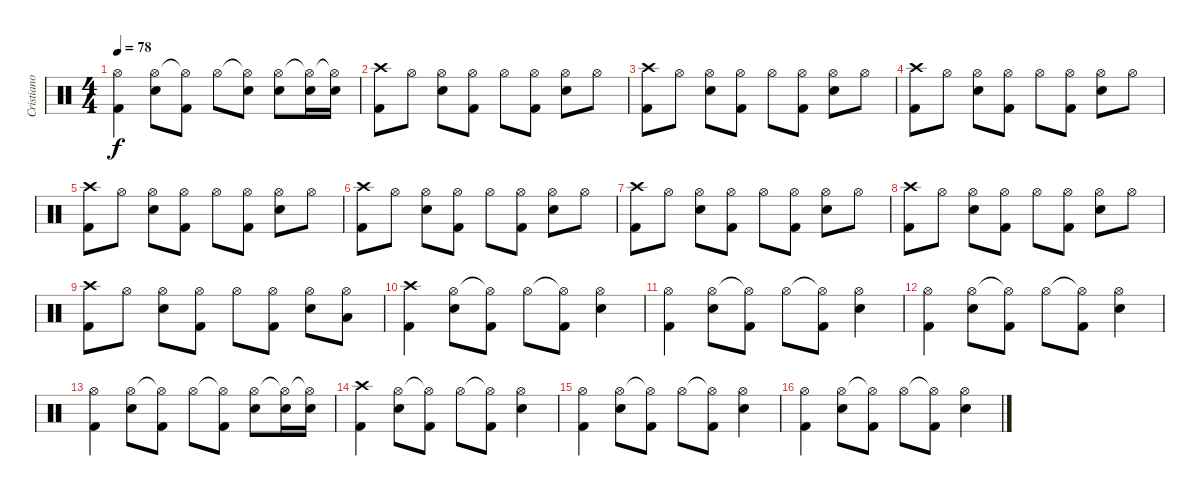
\track ("Cristiano Mozzati" "Cristiano ") {instrument percussion}
\staff {score}
\articulation defaults
\ts (4 4)
\tempo 78
\clef neutral
\ks c
("Hi-Hat (open)" "Kick (hit) 2").4{dy f} ("Hi-Hat (open)" "Electric Snare (hit)").8 ("Hi-Hat (open)"{t} "Kick (hit) 2").8 "Hi-Hat (open)".8 ("Hi-Hat (open)"{t} "Electric Snare (hit)").8 ("Hi-Hat (open)" "Electric Snare (hit)").8 ("Hi-Hat (open)"{t} "Electric Snare (hit)").16 ("Hi-Hat (open)"{t} "Electric Snare (hit)").16 |
("Crash high (hit)" "Kick (hit) 2").8 "Hi-Hat (open)".8 ("Hi-Hat (open)" "Electric Snare (hit)").8 ("Hi-Hat (open)" "Kick (hit) 2").8 "Hi-Hat (open)".8 ("Hi-Hat (open)" "Kick (hit) 2").8 ("Hi-Hat (open)" "Electric Snare (hit)").8 "Hi-Hat (open)".8 |
("Crash high (hit)" "Kick (hit) 2").8 "Hi-Hat (open)".8 ("Hi-Hat (open)" "Electric Snare (hit)").8 ("Hi-Hat (open)" "Kick (hit) 2").8 "Hi-Hat (open)".8 ("Hi-Hat (open)" "Kick (hit) 2").8 ("Hi-Hat (open)" "Electric Snare (hit)").8 "Hi-Hat (open)".8 |
("Crash high (hit)" "Kick (hit) 2").8 "Hi-Hat (open)".8 ("Hi-Hat (open)" "Electric Snare (hit)").8 ("Hi-Hat (open)" "Kick (hit) 2").8 "Hi-Hat (open)".8 ("Hi-Hat (open)" "Kick (hit) 2").8 ("Hi-Hat (open)" "Electric Snare (hit)").8 "Hi-Hat (open)".8 |
("Crash high (hit)" "Kick (hit) 2").8 "Hi-Hat (open)".8 ("Hi-Hat (open)" "Electric Snare (hit)").8 ("Hi-Hat (open)" "Kick (hit) 2").8 "Hi-Hat (open)".8 ("Hi-Hat (open)" "Kick (hit) 2").8 ("Hi-Hat (open)" "Electric Snare (hit)").8 "Hi-Hat (open)".8 |
("Crash high (hit)" "Kick (hit) 2").8 "Hi-Hat (open)".8 ("Hi-Hat (open)" "Electric Snare (hit)").8 ("Hi-Hat (open)" "Kick (hit) 2").8 "Hi-Hat (open)".8 ("Hi-Hat (open)" "Kick (hit) 2").8 ("Hi-Hat (open)" "Electric Snare (hit)").8 "Hi-Hat (open)".8 |
("Crash high (hit)" "Kick (hit) 2").8 "Hi-Hat (open)".8 ("Hi-Hat (open)" "Electric Snare (hit)").8 ("Hi-Hat (open)" "Kick (hit) 2").8 "Hi-Hat (open)".8 ("Hi-Hat (open)" "Kick (hit) 2").8 ("Hi-Hat (open)" "Electric Snare (hit)").8 "Hi-Hat (open)".8 |
("Crash high (hit)" "Kick (hit) 2").8 "Hi-Hat (open)".8 ("Hi-Hat (open)" "Electric Snare (hit)").8 ("Hi-Hat (open)" "Kick (hit) 2").8 "Hi-Hat (open)".8 ("Hi-Hat (open)" "Kick (hit) 2").8 ("Hi-Hat (open)" "Electric Snare (hit)").8 "Hi-Hat (open)".8 |
("Crash high (hit)" "Kick (hit) 2").8 "Hi-Hat (open)".8 ("Hi-Hat (open)" "Electric Snare (hit)").8 ("Hi-Hat (open)" "Kick (hit) 2").8 "Hi-Hat (open)".8 ("Hi-Hat (open)" "Kick (hit) 2").8 ("Hi-Hat (open)" "Electric Snare (hit)").8 ("Hi-Hat (open)" "Low Tom (hit)").8 |
("Crash high (hit)" "Kick (hit) 2").4 ("Hi-Hat (open)" "Electric Snare (hit)").8 ("Hi-Hat (open)"{t} "Kick (hit) 2").8 "Hi-Hat (open)".8 ("Hi-Hat (open)"{t} "Kick (hit) 2").8 ("Hi-Hat (open)" "Electric Snare (hit)").4 |
("Hi-Hat (open)" "Kick (hit) 2").4 ("Hi-Hat (open)" "Electric Snare (hit)").8 ("Hi-Hat (open)"{t} "Kick (hit) 2").8 "Hi-Hat (open)".8 ("Hi-Hat (open)"{t} "Kick (hit) 2").8 ("Hi-Hat (open)" "Electric Snare (hit)").4 |
("Hi-Hat (open)" "Kick (hit) 2").4 ("Hi-Hat (open)" "Electric Snare (hit)").8 ("Hi-Hat (open)"{t} "Kick (hit) 2").8 "Hi-Hat (open)".8 ("Hi-Hat (open)"{t} "Kick (hit) 2").8 ("Hi-Hat (open)" "Electric Snare (hit)").4 |
("Hi-Hat (open)" "Kick (hit) 2").4 ("Hi-Hat (open)" "Electric Snare (hit)").8 ("Hi-Hat (open)"{t} "Kick (hit) 2").8 "Hi-Hat (open)".8 ("Hi-Hat (open)"{t} "Kick (hit) 2").8 ("Hi-Hat (open)" "Electric Snare (hit)").8 ("Hi-Hat (open)"{t} "Electric Snare (hit)").16 ("Hi-Hat (open)"{t} "Electric Snare (hit)").16 |
("Crash high (hit)" "Kick (hit) 2").4 ("Hi-Hat (open)" "Electric Snare (hit)").8 ("Hi-Hat (open)"{t} "Kick (hit) 2").8 "Hi-Hat (open)".8 ("Hi-Hat (open)"{t} "Kick (hit) 2").8 ("Hi-Hat (open)" "Electric Snare (hit)").4 |
("Hi-Hat (open)" "Kick (hit) 2").4 ("Hi-Hat (open)" "Electric Snare (hit)").8 ("Hi-Hat (open)"{t} "Kick (hit) 2").8 "Hi-Hat (open)".8 ("Hi-Hat (open)"{t} "Kick (hit) 2").8 ("Hi-Hat (open)" "Electric Snare (hit)").4 |
("Hi-Hat (open)" "Kick (hit) 2").4 ("Hi-Hat (open)" "Electric Snare (hit)").8 ("Hi-Hat (open)"{t} "Kick (hit) 2").8 "Hi-Hat (open)".8 ("Hi-Hat (open)"{t} "Kick (hit) 2").8 ("Hi-Hat (open)" "Electric Snare (hit)").4
